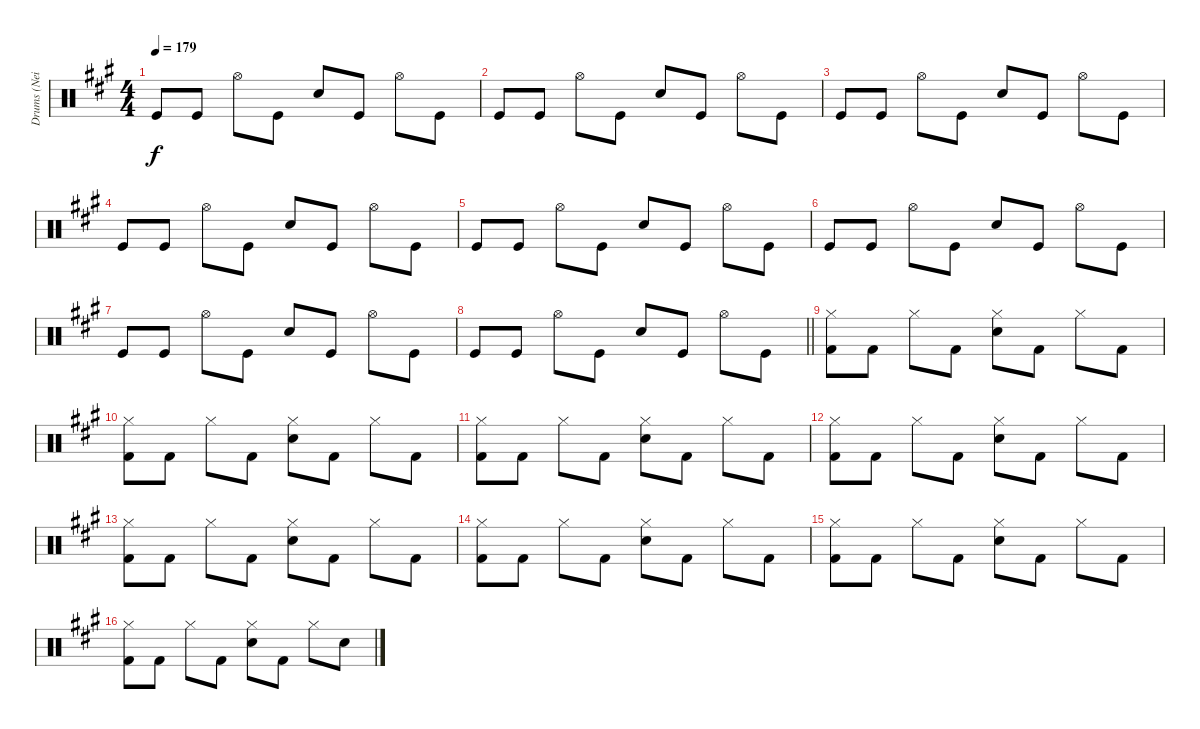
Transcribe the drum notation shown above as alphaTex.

\track ("Drums (Neil Sanderson)" "Drums (Nei") {instrument percussion}
\staff {score}
\articulation defaults
\ts (4 4)
\tempo 179
\clef neutral
\ks f#minor "Kick (hit)".8{dy f volume 6} "Kick (hit)".8 "Hi-Hat (open)".8 "Kick (hit)".8 "Snare (hit) 2".8 "Kick (hit)".8 "Hi-Hat (open)".8 "Kick (hit)".8
|
"Kick (hit)".8 "Kick (hit)".8 "Hi-Hat (open)".8 "Kick (hit)".8 "Snare (hit) 2".8 "Kick (hit)".8 "Hi-Hat (open)".8 "Kick (hit)".8 |
"Kick (hit)".8 "Kick (hit)".8 "Hi-Hat (open)".8 "Kick (hit)".8 "Snare (hit) 2".8 "Kick (hit)".8 "Hi-Hat (open)".8 "Kick (hit)".8 |
"Kick (hit)".8 "Kick (hit)".8 "Hi-Hat (open)".8 "Kick (hit)".8 "Snare (hit) 2".8 "Kick (hit)".8 "Hi-Hat (open)".8 "Kick (hit)".8 |
"Kick (hit)".8 "Kick (hit)".8 "Hi-Hat (open)".8 "Kick (hit)".8 "Snare (hit) 2".8 "Kick (hit)".8 "Hi-Hat (open)".8 "Kick (hit)".8 |
"Kick (hit)".8 "Kick (hit)".8 "Hi-Hat (open)".8 "Kick (hit)".8 "Snare (hit) 2".8 "Kick (hit)".8 "Hi-Hat (open)".8 "Kick (hit)".8 |
"Kick (hit)".8 "Kick (hit)".8 "Hi-Hat (open)".8 "Kick (hit)".8 "Snare (hit) 2".8 "Kick (hit)".8 "Hi-Hat (open)".8 "Kick (hit)".8 |
\barLineRight lightlight "Kick (hit)".8 "Kick (hit)".8 "Hi-Hat (open)".8 "Kick (hit)".8 "Snare (hit) 2".8 "Kick (hit)".8 "Hi-Hat (open)".8 "Kick (hit)".8
|
("Hi-Hat (closed)" "Kick (hit) 2").8{volume 16} "Kick (hit) 2".8 "Hi-Hat (closed)".8 "Kick (hit) 2".8 ("Hi-Hat (closed)" "Electric Snare (hit)").8 "Kick (hit) 2".8 "Hi-Hat (closed)".8 "Kick (hit) 2".8 |
("Hi-Hat (closed)" "Kick (hit) 2").8 "Kick (hit) 2".8 "Hi-Hat (closed)".8 "Kick (hit) 2".8 ("Hi-Hat (closed)" "Electric Snare (hit)").8 "Kick (hit) 2".8 "Hi-Hat (closed)".8 "Kick (hit) 2".8 |
("Hi-Hat (closed)" "Kick (hit) 2").8 "Kick (hit) 2".8 "Hi-Hat (closed)".8 "Kick (hit) 2".8 ("Hi-Hat (closed)" "Electric Snare (hit)").8 "Kick (hit) 2".8 "Hi-Hat (closed)".8 "Kick (hit) 2".8 |
("Hi-Hat (closed)" "Kick (hit) 2").8 "Kick (hit) 2".8 "Hi-Hat (closed)".8 "Kick (hit) 2".8 ("Hi-Hat (closed)" "Electric Snare (hit)").8 "Kick (hit) 2".8 "Hi-Hat (closed)".8 "Kick (hit) 2".8 |
("Hi-Hat (closed)" "Kick (hit) 2").8 "Kick (hit) 2".8 "Hi-Hat (closed)".8 "Kick (hit) 2".8 ("Hi-Hat (closed)" "Electric Snare (hit)").8 "Kick (hit) 2".8 "Hi-Hat (closed)".8 "Kick (hit) 2".8 |
("Hi-Hat (closed)" "Kick (hit) 2").8 "Kick (hit) 2".8 "Hi-Hat (closed)".8 "Kick (hit) 2".8 ("Hi-Hat (closed)" "Electric Snare (hit)").8 "Kick (hit) 2".8 "Hi-Hat (closed)".8 "Kick (hit) 2".8 |
("Hi-Hat (closed)" "Kick (hit) 2").8 "Kick (hit) 2".8 "Hi-Hat (closed)".8 "Kick (hit) 2".8 ("Hi-Hat (closed)" "Electric Snare (hit)").8 "Kick (hit) 2".8 "Hi-Hat (closed)".8 "Kick (hit) 2".8 |
("Hi-Hat (closed)" "Kick (hit) 2").8 "Kick (hit) 2".8 "Hi-Hat (closed)".8 "Kick (hit) 2".8 ("Hi-Hat (closed)" "Electric Snare (hit)").8 "Kick (hit) 2".8 "Hi-Hat (closed)".8 "Electric Snare (hit)".8
